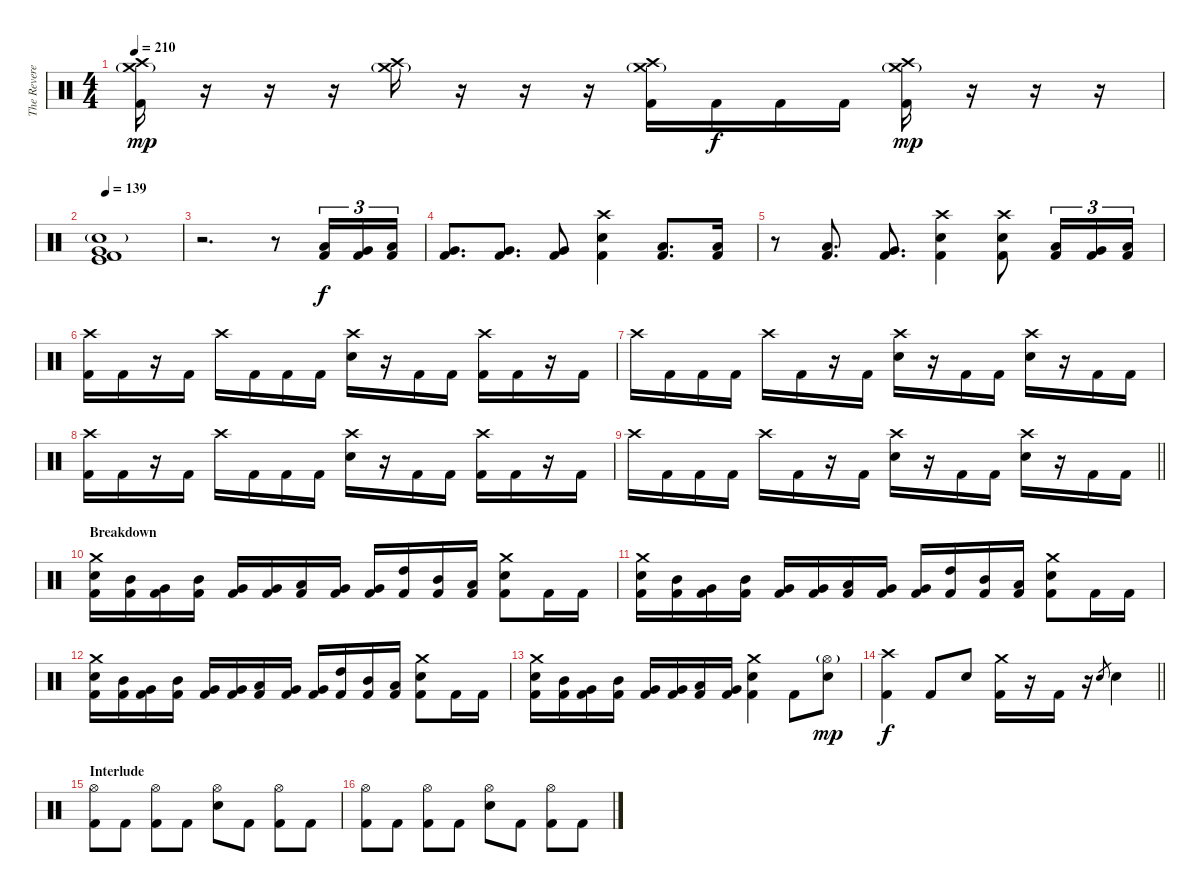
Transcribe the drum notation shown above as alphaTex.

\track ("The Reverend" "The Revere") {instrument percussion}
\staff {score}
\articulation defaults
\ts (4 4)
\tempo 210
\clef neutral
\ks c
("Crash high (hit)" "Crash medium (hit)"{g} "Kick (hit) 2").16{dy mp} r.16 r.16 r.16 ("Crash high (hit)" "Crash medium (hit)"{g}).16 r.16 r.16 r.16 ("Crash high (hit)" "Crash medium (hit)"{g} "Kick (hit) 2").16 "Kick (hit) 2".16{dy f} "Kick (hit) 2".16 "Kick (hit) 2".16 ("Crash high (hit)" "Crash medium (hit)"{g} "Kick (hit) 2").16{dy mp} r.16 r.16 r.16 |
\tempo 139
("Snare (hit) 2"{g} "Very Low Tom (hit)" "Kick (hit)" "Kick (hit) 2").1 |
r.2{d} r.8 ("Low Tom (hit)" "Kick (hit) 2").16{tu (3 2) dy f} ("Very Low Tom (hit)" "Kick (hit) 2").16{tu (3 2)} ("Low Floor Tom (hit)" "Kick (hit) 2").16{tu (3 2)} |
("Very Low Tom (hit)" "Kick (hit) 2").8{d} ("Very Low Tom (hit)" "Kick (hit) 2").8{d} ("Very Low Tom (hit)" "Kick (hit) 2").8 ("Crash high (hit)" "Electric Snare (hit)" "Kick (hit) 2").4 ("Low Tom (hit)" "Kick (hit) 2").8{d} ("Low Tom (hit)" "Kick (hit) 2").16 |
r.8 ("Low Tom (hit)" "Kick (hit) 2").8{d} ("Very Low Tom (hit)" "Kick (hit) 2").8{d} ("Crash high (hit)" "Electric Snare (hit)" "Kick (hit) 2").4 ("Crash high (hit)" "Electric Snare (hit)" "Kick (hit) 2").8 ("Low Tom (hit)" "Kick (hit) 2").16{tu (3 2)} ("Very Low Tom (hit)" "Kick (hit) 2").16{tu (3 2)} ("Low Floor Tom (hit)" "Kick (hit) 2").16{tu (3 2)} |
("Crash high (hit)" "Kick (hit) 2").16 "Kick (hit) 2".16 r.16 "Kick (hit) 2".16 "Crash high (hit)".16 "Kick (hit) 2".16 "Kick (hit) 2".16 "Kick (hit) 2".16 ("Crash high (hit)" "Electric Snare (hit)").16 r.16 "Kick (hit) 2".16 "Kick (hit) 2".16 ("Crash high (hit)" "Kick (hit) 2").16 "Kick (hit) 2".16 r.16 "Kick (hit) 2".16 |
"Crash high (hit)".16 "Kick (hit) 2".16 "Kick (hit) 2".16 "Kick (hit) 2".16 "Crash high (hit)".16 "Kick (hit) 2".16 r.16 "Kick (hit) 2".16 ("Crash high (hit)" "Electric Snare (hit)").16 r.16 "Kick (hit) 2".16 "Kick (hit) 2".16 ("Crash high (hit)" "Electric Snare (hit)").16 r.16 "Kick (hit) 2".16 "Kick (hit) 2".16 |
("Crash high (hit)" "Kick (hit) 2").16 "Kick (hit) 2".16 r.16 "Kick (hit) 2".16 "Crash high (hit)".16 "Kick (hit) 2".16 "Kick (hit) 2".16 "Kick (hit) 2".16 ("Crash high (hit)" "Electric Snare (hit)").16 r.16 "Kick (hit) 2".16 "Kick (hit) 2".16 ("Crash high (hit)" "Kick (hit) 2").16 "Kick (hit) 2".16 r.16 "Kick (hit) 2".16 |
\barLineRight lightlight "Crash high (hit)".16 "Kick (hit) 2".16 "Kick (hit) 2".16 "Kick (hit) 2".16 "Crash high (hit)".16 "Kick (hit) 2".16
r.16 "Kick (hit) 2".16 ("Crash high (hit)" "Electric Snare (hit)").16 r.16 "Kick (hit) 2".16 "Kick (hit) 2".16 ("Crash high (hit)" "Electric Snare (hit)").16 r.16 "Kick (hit) 2".16 "Kick (hit) 2".16 |
\section ("" "Breakdown")
("Crash medium (hit)" "Electric Snare (hit)" "Kick (hit) 2").16 ("Mid Tom (hit)" "Kick (hit) 2").16 ("Very Low Tom (hit)" "Kick (hit) 2").16 ("Mid Tom (hit)" "Kick (hit) 2").16 ("Very Low Tom (hit)" "Kick (hit) 2").16 ("Very Low Tom (hit)" "Kick (hit) 2").16 ("Low Tom (hit)" "Kick (hit) 2").16 ("Very Low Tom (hit)" "Kick (hit) 2").16 ("Very Low Tom (hit)" "Kick (hit) 2").16 ("High Tom (hit)" "Kick (hit) 2").16 ("Mid Tom (hit)" "Kick (hit) 2").16 ("Low Tom (hit)" "Kick (hit) 2").16 ("Crash medium (hit)" "Electric Snare (hit)" "Kick (hit) 2").8 "Kick (hit) 2".16 "Kick (hit) 2".16 |
("Crash medium (hit)" "Electric Snare (hit)" "Kick (hit) 2").16 ("Mid Tom (hit)" "Kick (hit) 2").16 ("Very Low Tom (hit)" "Kick (hit) 2").16 ("Mid Tom (hit)" "Kick (hit) 2").16 ("Very Low Tom (hit)" "Kick (hit) 2").16 ("Very Low Tom (hit)" "Kick (hit) 2").16 ("Low Tom (hit)" "Kick (hit) 2").16 ("Very Low Tom (hit)" "Kick (hit) 2").16 ("Very Low Tom (hit)" "Kick (hit) 2").16 ("High Tom (hit)" "Kick (hit) 2").16 ("Mid Tom (hit)" "Kick (hit) 2").16 ("Low Tom (hit)" "Kick (hit) 2").16 ("Crash medium (hit)" "Electric Snare (hit)" "Kick (hit) 2").8 "Kick (hit) 2".16 "Kick (hit) 2".16 |
("Crash medium (hit)" "Electric Snare (hit)" "Kick (hit) 2").16 ("Mid Tom (hit)" "Kick (hit) 2").16 ("Very Low Tom (hit)" "Kick (hit) 2").16 ("Mid Tom (hit)" "Kick (hit) 2").16 ("Very Low Tom (hit)" "Kick (hit) 2").16 ("Very Low Tom (hit)" "Kick (hit) 2").16 ("Low Tom (hit)" "Kick (hit) 2").16 ("Very Low Tom (hit)" "Kick (hit) 2").16 ("Very Low Tom (hit)" "Kick (hit) 2").16 ("High Tom (hit)" "Kick (hit) 2").16 ("Mid Tom (hit)" "Kick (hit) 2").16 ("Low Tom (hit)" "Kick (hit) 2").16 ("Crash medium (hit)" "Electric Snare (hit)" "Kick (hit) 2").8 "Kick (hit) 2".16 "Kick (hit) 2".16 |
("Crash medium (hit)" "Electric Snare (hit)" "Kick (hit) 2").16 ("Mid Tom (hit)" "Kick (hit) 2").16 ("Very Low Tom (hit)" "Kick (hit) 2").16 ("Mid Tom (hit)" "Kick (hit) 2").16 ("Very Low Tom (hit)" "Kick (hit) 2").16 ("Very Low Tom (hit)" "Kick (hit) 2").16 ("Low Tom (hit)" "Kick (hit) 2").16 ("Very Low Tom (hit)" "Kick (hit) 2").16 ("Crash medium (hit)" "Electric Snare (hit)" "Kick (hit) 2").4 "Kick (hit) 2".8 ("Hi-Hat (open)"{g} "Electric Snare (hit)").8{dy mp} |
\barLineRight lightlight
("Crash high (hit)" "Kick (hit) 2").4{dy f} "Kick (hit) 2".8 "Electric Snare (hit)".8 ("Crash medium (hit)" "Kick (hit) 2").16 r.16 "Kick (hit) 2".16 r.16 "Electric Snare (hit)".8{gr} "Electric Snare (hit)".4 |
\section ("" "Interlude")
("Hi-Hat (open)" "Kick (hit) 2").8 "Kick (hit) 2".8 ("Hi-Hat (open)" "Kick (hit) 2").8 "Kick (hit) 2".8 ("Hi-Hat (open)" "Electric Snare (hit)").8 "Kick (hit) 2".8 ("Hi-Hat (open)" "Kick (hit) 2").8 "Kick (hit) 2".8 |
("Hi-Hat (open)" "Kick (hit) 2").8 "Kick (hit) 2".8 ("Hi-Hat (open)" "Kick (hit) 2").8 "Kick (hit) 2".8 ("Hi-Hat (open)" "Electric Snare (hit)").8 "Kick (hit) 2".8 ("Hi-Hat (open)" "Kick (hit) 2").8 "Kick (hit) 2".8
